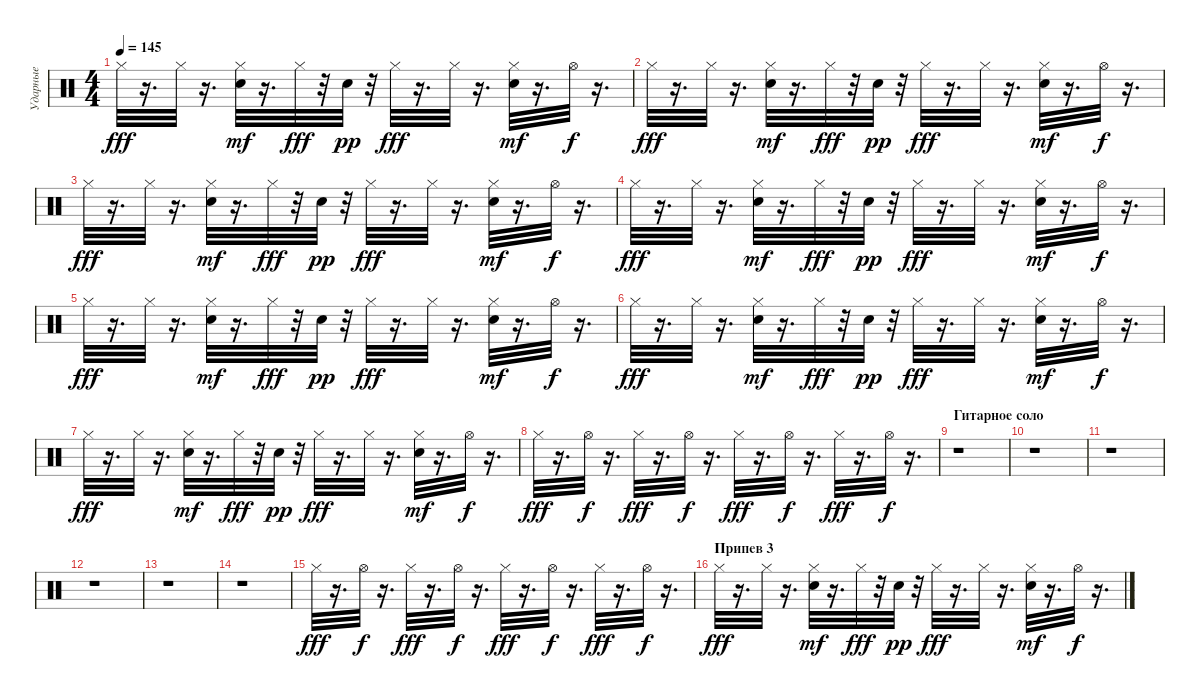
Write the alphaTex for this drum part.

\track ("Ударные" "Ударные") {instrument percussion}
\staff {score}
\articulation defaults
\ts (4 4)
\tempo 145
\clef neutral
\ks c "Hi-Hat (closed)".32{dy fff}
r.16{d} "Hi-Hat (closed)".32 r.16{d} ("Hi-Hat (closed)" "Electric Snare (hit)").32{dy mf} r.16{d} "Hi-Hat (closed)".32{dy fff} r.32 "Electric Snare (hit)".32{dy pp} r.32 "Hi-Hat (closed)".32{dy fff} r.16{d} "Hi-Hat (closed)".32 r.16{d} ("Hi-Hat (closed)" "Electric Snare (hit)").32{dy mf} r.16{d} "Hi-Hat (open)".32{dy f} r.16{d} |
"Hi-Hat (closed)".32{dy fff} r.16{d} "Hi-Hat (closed)".32 r.16{d} ("Hi-Hat (closed)" "Electric Snare (hit)").32{dy mf} r.16{d} "Hi-Hat (closed)".32{dy fff} r.32 "Electric Snare (hit)".32{dy pp} r.32 "Hi-Hat (closed)".32{dy fff} r.16{d} "Hi-Hat (closed)".32 r.16{d} ("Hi-Hat (closed)" "Electric Snare (hit)").32{dy mf} r.16{d} "Hi-Hat (open)".32{dy f} r.16{d} |
"Hi-Hat (closed)".32{dy fff} r.16{d} "Hi-Hat (closed)".32 r.16{d} ("Hi-Hat (closed)" "Electric Snare (hit)").32{dy mf} r.16{d} "Hi-Hat (closed)".32{dy fff} r.32 "Electric Snare (hit)".32{dy pp} r.32 "Hi-Hat (closed)".32{dy fff} r.16{d} "Hi-Hat (closed)".32 r.16{d} ("Hi-Hat (closed)" "Electric Snare (hit)").32{dy mf} r.16{d} "Hi-Hat (open)".32{dy f} r.16{d} |
"Hi-Hat (closed)".32{dy fff} r.16{d} "Hi-Hat (closed)".32 r.16{d} ("Hi-Hat (closed)" "Electric Snare (hit)").32{dy mf} r.16{d} "Hi-Hat (closed)".32{dy fff} r.32 "Electric Snare (hit)".32{dy pp} r.32 "Hi-Hat (closed)".32{dy fff} r.16{d} "Hi-Hat (closed)".32 r.16{d} ("Hi-Hat (closed)" "Electric Snare (hit)").32{dy mf} r.16{d} "Hi-Hat (open)".32{dy f} r.16{d} |
"Hi-Hat (closed)".32{dy fff} r.16{d} "Hi-Hat (closed)".32 r.16{d} ("Hi-Hat (closed)" "Electric Snare (hit)").32{dy mf} r.16{d} "Hi-Hat (closed)".32{dy fff} r.32 "Electric Snare (hit)".32{dy pp} r.32 "Hi-Hat (closed)".32{dy fff} r.16{d} "Hi-Hat (closed)".32 r.16{d} ("Hi-Hat (closed)" "Electric Snare (hit)").32{dy mf} r.16{d} "Hi-Hat (open)".32{dy f} r.16{d} |
"Hi-Hat (closed)".32{dy fff} r.16{d} "Hi-Hat (closed)".32 r.16{d} ("Hi-Hat (closed)" "Electric Snare (hit)").32{dy mf} r.16{d} "Hi-Hat (closed)".32{dy fff} r.32 "Electric Snare (hit)".32{dy pp} r.32 "Hi-Hat (closed)".32{dy fff} r.16{d} "Hi-Hat (closed)".32 r.16{d} ("Hi-Hat (closed)" "Electric Snare (hit)").32{dy mf} r.16{d} "Hi-Hat (open)".32{dy f} r.16{d} |
"Hi-Hat (closed)".32{dy fff} r.16{d} "Hi-Hat (closed)".32 r.16{d} ("Hi-Hat (closed)" "Electric Snare (hit)").32{dy mf} r.16{d} "Hi-Hat (closed)".32{dy fff} r.32 "Electric Snare (hit)".32{dy pp} r.32 "Hi-Hat (closed)".32{dy fff} r.16{d} "Hi-Hat (closed)".32 r.16{d} ("Hi-Hat (closed)" "Electric Snare (hit)").32{dy mf} r.16{d} "Hi-Hat (open)".32{dy f} r.16{d} |
"Hi-Hat (closed)".32{dy fff} r.16{d} "Hi-Hat (open)".32{dy f} r.16{d} "Hi-Hat (closed)".32{dy fff} r.16{d} "Hi-Hat (open)".32{dy f} r.16{d} "Hi-Hat (closed)".32{dy fff} r.16{d} "Hi-Hat (open)".32{dy f} r.16{d} "Hi-Hat (closed)".32{dy fff} r.16{d} "Hi-Hat (open)".32{dy f} r.16{d} |
\section ("" "Гитарное соло")
r.1 |
r.1 |
r.1 |
r.1 |
r.1 |
r.1 |
"Hi-Hat (closed)".32{dy fff} r.16{d} "Hi-Hat (open)".32{dy f} r.16{d} "Hi-Hat (closed)".32{dy fff} r.16{d} "Hi-Hat (open)".32{dy f} r.16{d} "Hi-Hat (closed)".32{dy fff} r.16{d} "Hi-Hat (open)".32{dy f} r.16{d} "Hi-Hat (closed)".32{dy fff} r.16{d} "Hi-Hat (open)".32{dy f} r.16{d} |
\section ("" "Припев 3")
"Hi-Hat (closed)".32{dy fff} r.16{d} "Hi-Hat (closed)".32 r.16{d} ("Hi-Hat (closed)" "Electric Snare (hit)").32{dy mf} r.16{d} "Hi-Hat (closed)".32{dy fff} r.32 "Electric Snare (hit)".32{dy pp} r.32 "Hi-Hat (closed)".32{dy fff} r.16{d} "Hi-Hat (closed)".32 r.16{d} ("Hi-Hat (closed)" "Electric Snare (hit)").32{dy mf} r.16{d} "Hi-Hat (open)".32{dy f} r.16{d}
